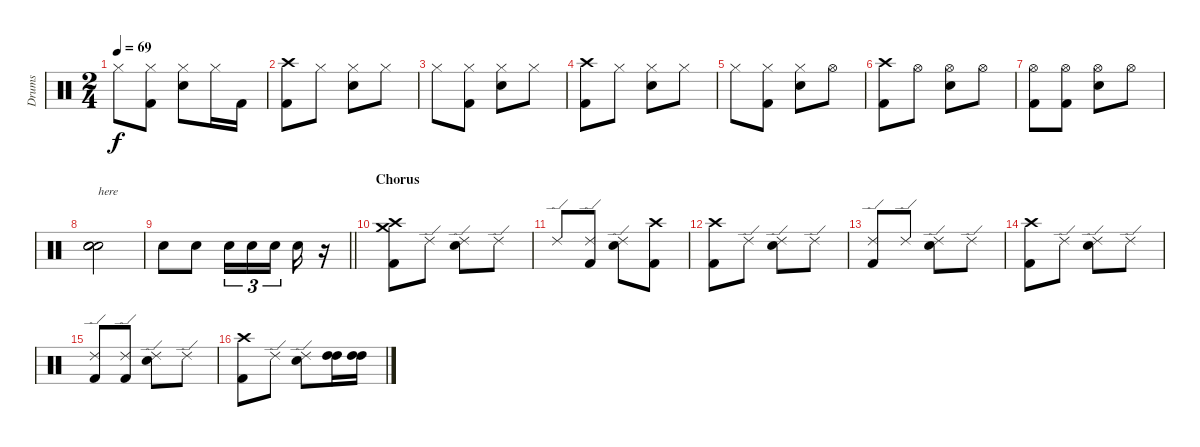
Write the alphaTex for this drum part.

\track ("Drums" "Drums") {instrument percussion}
\staff {score}
\articulation defaults
\ts (2 4)
\tempo 69
\clef neutral
\ks c "Hi-Hat (closed)".8{dy f}
("Kick (hit) 2" "Hi-Hat (closed)").8 ("Electric Snare (hit)" "Hi-Hat (closed)").8 "Hi-Hat (closed)".16 "Kick (hit) 2".16 |
("Kick (hit) 2" "Crash high (hit)").8 "Hi-Hat (closed)".8 ("Electric Snare (hit)" "Hi-Hat (closed)").8 "Hi-Hat (closed)".8 |
"Hi-Hat (closed)".8 ("Kick (hit) 2" "Hi-Hat (closed)").8 ("Electric Snare (hit)" "Hi-Hat (closed)").8 "Hi-Hat (closed)".8 |
("Kick (hit) 2" "Crash high (hit)").8 "Hi-Hat (closed)".8 ("Electric Snare (hit)" "Hi-Hat (closed)").8 "Hi-Hat (closed)".8 |
"Hi-Hat (closed)".8 ("Kick (hit) 2" "Hi-Hat (closed)").8 ("Electric Snare (hit)" "Hi-Hat (closed)").8 "Hi-Hat (open)".8 |
("Kick (hit) 2" "Crash high (hit)").8 "Hi-Hat (open)".8 ("Electric Snare (hit)" "Hi-Hat (open)").8 "Hi-Hat (open)".8 |
("Kick (hit) 2" "Hi-Hat (open)").8 ("Kick (hit) 2" "Hi-Hat (open)").8 ("Electric Snare (hit)" "Hi-Hat (open)").8 "Hi-Hat (open)".8 |
("Electric Snare (hit)" "Electric Snare (hit)" "Electric Snare (hit)").2{txt "here"} |
\barLineRight lightlight "Electric Snare (hit)".8 "Electric Snare (hit)".8 "Electric Snare (hit)".16{tu (3 2)} "Electric Snare (hit)".16{tu (3 2)} "Electric Snare (hit)".16{tu (3 2) beam splitsecondary} "Electric Snare (hit)".16
r.16 |
\section ("" "Chorus")
("Kick (hit) 2" "Crash high (hit)" "Crash medium (hit)").8 "Ride (edge) 2".8 ("Electric Snare (hit)" "Ride (edge) 2").8 "Ride (edge) 2".8 |
"Ride (edge) 2".8 ("Kick (hit) 2" "Ride (edge) 2").8 ("Electric Snare (hit)" "Ride (edge) 2").8 ("Kick (hit) 2" "Crash high (hit)").8 |
("Kick (hit) 2" "Crash high (hit)").8 "Ride (edge) 2".8 ("Electric Snare (hit)" "Ride (edge) 2").8 "Ride (edge) 2".8 |
("Kick (hit) 2" "Ride (edge) 2").8 "Ride (edge) 2".8 ("Electric Snare (hit)" "Ride (edge) 2").8 "Ride (edge) 2".8 |
("Kick (hit) 2" "Crash high (hit)").8 "Ride (edge) 2".8 ("Electric Snare (hit)" "Ride (edge) 2").8 "Ride (edge) 2".8 |
("Kick (hit) 2" "Ride (edge) 2").8 ("Kick (hit) 2" "Ride (edge) 2").8 ("Electric Snare (hit)" "Ride (edge) 2").8 "Ride (edge) 2".8 |
("Kick (hit) 2" "Crash high (hit)").8 "Ride (edge) 2".8 ("Electric Snare (hit)" "Ride (edge) 2").8 ("High Tom (hit)" "High Tom (hit)").16 ("High Tom (hit)" "High Tom (hit)").16
